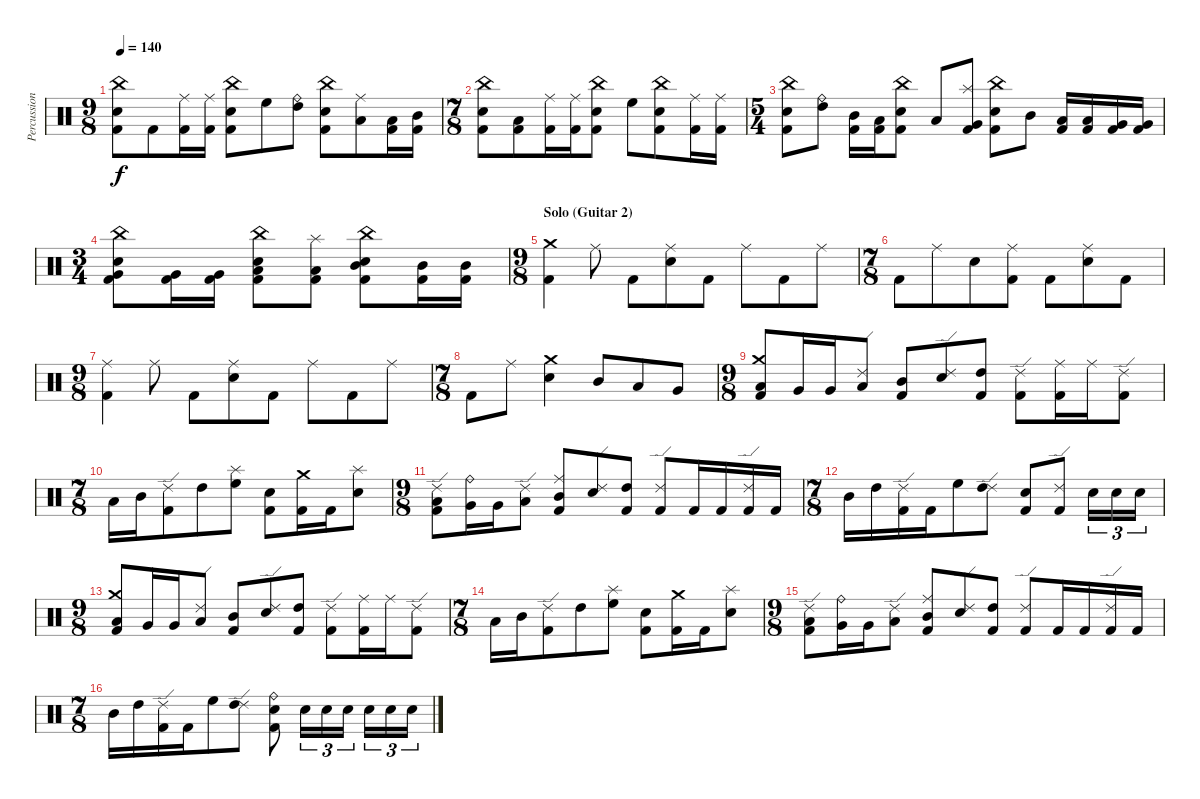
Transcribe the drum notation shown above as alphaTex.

\track ("Percussion" "Percussion") {instrument percussion}
\staff {score}
\articulation defaults
\ts (9 8)
\tempo 140
\clef neutral
\ks c
("China (hit)" "Electric Snare (hit)" "Kick (hit) 2").8{dy f} "Kick (hit) 2".8 ("Ride (middle)" "Kick (hit) 2").16 ("Ride (middle)" "Kick (hit) 2").16 ("China (hit)" "Electric Snare (hit)" "Kick (hit) 2").8 "High Floor Tom (hit)".8 ("Ride (bell)" "High Tom (hit)").8 ("China (hit)" "Electric Snare (hit)" "Kick (hit) 2").8 ("Ride (middle)" "Low Tom (hit)").8 ("Low Tom (hit)" "Kick (hit) 2").16 ("Mid Tom (hit)" "Kick (hit) 2").16 |
\ts (7 8)
("China (hit)" "Electric Snare (hit)" "Kick (hit) 2").8 ("Low Tom (hit)" "Kick (hit) 2").8 ("Ride (middle)" "Kick (hit) 2").16 ("Ride (middle)" "Kick (hit) 2").16 ("China (hit)" "Electric Snare (hit)" "Kick (hit) 2").8 "High Floor Tom (hit)".8 ("China (hit)" "Electric Snare (hit)" "Kick (hit) 2").8 ("Ride (middle)" "Kick (hit) 2").16 ("Ride (middle)" "Kick (hit) 2").16 |
\ts (5 4)
("China (hit)" "Electric Snare (hit)" "Kick (hit) 2").8 ("Ride (bell)" "High Tom (hit)").8 ("Mid Tom (hit)" "Kick (hit) 2").16 ("Low Tom (hit)" "Kick (hit) 2").16 ("China (hit)" "Electric Snare (hit)" "Kick (hit) 2").8 "Low Tom (hit)".8 ("Splash (hit)" "Very Low Tom (hit)" "Kick (hit) 2").8 ("China (hit)" "Electric Snare (hit)" "Kick (hit) 2").8 "Mid Tom (hit)".8 ("Low Tom (hit)" "Kick (hit) 2").16 ("Low Tom (hit)" "Kick (hit) 2").16 ("Very Low Tom (hit)" "Kick (hit) 2").16 ("Very Low Tom (hit)" "Kick (hit) 2").16 |
\ts (3 4)
("China (hit)" "Very Low Tom (hit)" "Electric Snare (hit)" "Kick (hit) 2").8 ("Very Low Tom (hit)" "Kick (hit) 2").16 ("Very Low Tom (hit)" "Kick (hit) 2").16 ("China (hit)" "Low Tom (hit)" "Electric Snare (hit)" "Kick (hit) 2").8 ("Splash (hit)" "Low Tom (hit)" "Kick (hit) 2").8 ("China (hit)" "Mid Tom (hit)" "Electric Snare (hit)" "Kick (hit) 2").8 ("Mid Tom (hit)" "Kick (hit) 2").16 ("Mid Tom (hit)" "Kick (hit) 2").16 |
\ts (9 8)
\section ("" "Solo (Guitar 2)")
("Crash medium (hit)" "Kick (hit) 2").4 "Ride (middle)".8 "Kick (hit) 2".8 ("Ride (middle)" "Electric Snare (hit)").8 "Kick (hit) 2".8 "Ride (middle)".8 "Kick (hit) 2".8 "Ride (middle)".8 |
\ts (7 8)
"Kick (hit) 2".8 "Ride (middle)".8 "Electric Snare (hit)".8 ("Ride (middle)" "Kick (hit) 2").8 "Kick (hit) 2".8 ("Ride (middle)" "Electric Snare (hit)").8 "Kick (hit) 2".8 |
\ts (9 8)
("Ride (middle)" "Kick (hit) 2").4 "Ride (middle)".8 "Kick (hit) 2".8 ("Ride (middle)" "Electric Snare (hit)").8 "Kick (hit) 2".8 "Ride (middle)".8 "Kick (hit) 2".8 "Ride (middle)".8 |
\ts (7 8)
"Kick (hit) 2".8 "Ride (middle)".8 ("Crash medium (hit)" "Electric Snare (hit)").4 "Mid Tom (hit)".8 "Low Tom (hit)".8 "Very Low Tom (hit)".8 |
\ts (9 8)
("Crash medium (hit)" "Low Floor Tom (hit)" "Kick (hit) 2").8 "Very Low Tom (hit)".16 "Very Low Tom (hit)".16 ("Ride (edge) 2" "Low Tom (hit)").8 ("Mid Tom (hit)" "Kick (hit) 2").8 ("Ride (edge) 2" "Electric Snare (hit)").8 ("High Tom (hit)" "Kick (hit) 2").8 ("Ride (edge) 2" "Kick (hit) 2").8 ("Ride (middle)" "Kick (hit) 2").16 "Ride (middle)".16 ("Ride (edge) 2" "Kick (hit) 2").8 |
\ts (7 8)
"Low Tom (hit)".16 "Mid Tom (hit)".16 ("Ride (edge) 2" "Kick (hit) 2").8 "High Tom (hit)".8 ("Splash (hit)" "High Floor Tom (hit)").8 ("Electric Snare (hit)" "Kick (hit) 2").8 ("Crash medium (hit)" "Kick (hit) 2").16 "Kick (hit) 2".16 ("Splash (hit)" "Electric Snare (hit)").8 |
\ts (9 8)
("Ride (edge) 2" "Low Floor Tom (hit)" "Kick (hit) 2").8 ("Ride (bell)" "Very Low Tom (hit)").16 "Very Low Tom (hit)".16 ("Ride (edge) 2" "Low Tom (hit)").8 ("Ride (middle)" "Mid Tom (hit)" "Kick (hit) 2").8 ("Ride (edge) 2" "Electric Snare (hit)").8 ("High Tom (hit)" "Kick (hit) 2").8 ("Ride (edge) 2" "Kick (hit) 2").8 "Kick (hit) 2".16 "Kick (hit) 2".16 ("Ride (edge) 2" "Kick (hit) 2").16 "Kick (hit) 2".16 |
\ts (7 8)
"Mid Tom (hit)".16 "High Tom (hit)".16 ("Ride (edge) 2" "Kick (hit) 2").16 "Kick (hit) 2".16 "High Floor Tom (hit)".8 ("Ride (edge) 2" "High Tom (hit)").8 ("Electric Snare (hit)" "Kick (hit) 2").8 ("Ride (edge) 2" "Kick (hit) 2").8 "Electric Snare (hit)".16{tu (3 2)} "Electric Snare (hit)".16{tu (3 2)} "Electric Snare (hit)".16{tu (3 2)} |
\ts (9 8)
("Crash medium (hit)" "Low Floor Tom (hit)" "Kick (hit) 2").8 "Very Low Tom (hit)".16 "Very Low Tom (hit)".16 ("Ride (edge) 2" "Low Tom (hit)").8 ("Mid Tom (hit)" "Kick (hit) 2").8 ("Ride (edge) 2" "Electric Snare (hit)").8 ("High Tom (hit)" "Kick (hit) 2").8 ("Ride (edge) 2" "Kick (hit) 2").8 ("Ride (middle)" "Kick (hit) 2").16 "Ride (middle)".16 ("Ride (edge) 2" "Kick (hit) 2").8 |
\ts (7 8)
"Low Tom (hit)".16 "Mid Tom (hit)".16 ("Ride (edge) 2" "Kick (hit) 2").8 "High Tom (hit)".8 ("Splash (hit)" "High Floor Tom (hit)").8 ("Electric Snare (hit)" "Kick (hit) 2").8 ("Crash medium (hit)" "Kick (hit) 2").16 "Kick (hit) 2".16 ("Splash (hit)" "Electric Snare (hit)").8 |
\ts (9 8)
("Ride (edge) 2" "Low Floor Tom (hit)" "Kick (hit) 2").8 ("Ride (bell)" "Very Low Tom (hit)").16 "Very Low Tom (hit)".16 ("Ride (edge) 2" "Low Tom (hit)").8 ("Ride (middle)" "Mid Tom (hit)" "Kick (hit) 2").8 ("Ride (edge) 2" "Electric Snare (hit)").8 ("High Tom (hit)" "Kick (hit) 2").8 ("Ride (edge) 2" "Kick (hit) 2").8 "Kick (hit) 2".16 "Kick (hit) 2".16 ("Ride (edge) 2" "Kick (hit) 2").16 "Kick (hit) 2".16 |
\ts (7 8)
"Mid Tom (hit)".16 "High Tom (hit)".16 ("Ride (edge) 2" "Kick (hit) 2").16 "Kick (hit) 2".16 "High Floor Tom (hit)".8 ("Ride (edge) 2" "High Tom (hit)").8 ("Ride (bell)" "Electric Snare (hit)" "Kick (hit) 2").8 "Electric Snare (hit)".16{tu (3 2)} "Electric Snare (hit)".16{tu (3 2)} "Electric Snare (hit)".16{tu (3 2)} "Electric Snare (hit)".16{tu (3 2)} "Electric Snare (hit)".16{tu (3 2)} "Electric Snare (hit)".16{tu (3 2)}
